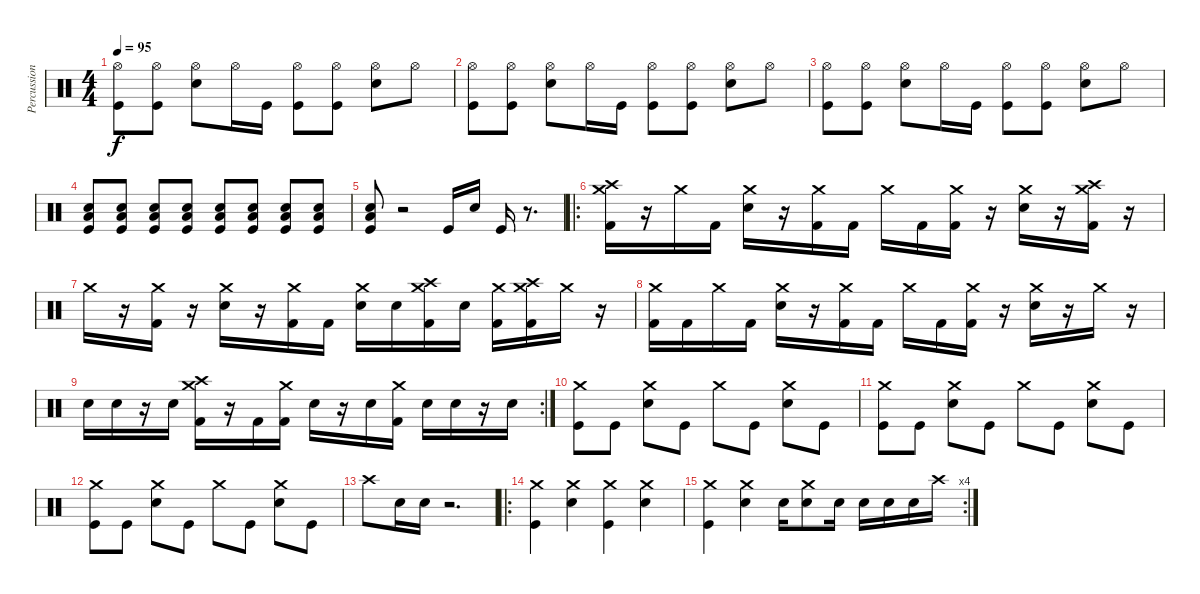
\track ("Percussion" "Percussion") {instrument percussion}
\staff {score}
\articulation defaults
\ts (4 4)
\tempo 95
\clef neutral
\ks c
("Hi-Hat (open)" "Kick (hit)").8{dy f} ("Hi-Hat (open)" "Kick (hit)").8 ("Hi-Hat (open)" "Snare (hit) 2").8 "Hi-Hat (open)".16 "Kick (hit)".16 ("Hi-Hat (open)" "Kick (hit)").8 ("Hi-Hat (open)" "Kick (hit)").8 ("Hi-Hat (open)" "Snare (hit) 2").8 "Hi-Hat (open)".8 |
("Hi-Hat (open)" "Kick (hit)").8 ("Hi-Hat (open)" "Kick (hit)").8 ("Hi-Hat (open)" "Snare (hit) 2").8 "Hi-Hat (open)".16 "Kick (hit)".16 ("Hi-Hat (open)" "Kick (hit)").8 ("Hi-Hat (open)" "Kick (hit)").8 ("Hi-Hat (open)" "Snare (hit) 2").8 "Hi-Hat (open)".8 |
("Hi-Hat (open)" "Kick (hit)").8 ("Hi-Hat (open)" "Kick (hit)").8 ("Hi-Hat (open)" "Snare (hit) 2").8 "Hi-Hat (open)".16 "Kick (hit)".16 ("Hi-Hat (open)" "Kick (hit)").8 ("Hi-Hat (open)" "Kick (hit)").8 ("Hi-Hat (open)" "Snare (hit) 2").8 "Hi-Hat (open)".8 |
("Snare (hit) 2" "Low Tom (hit)" "Kick (hit)").8 ("Snare (hit) 2" "Low Tom (hit)" "Kick (hit)").8 ("Snare (hit) 2" "Low Tom (hit)" "Kick (hit)").8 ("Snare (hit) 2" "Low Tom (hit)" "Kick (hit)").8 ("Snare (hit) 2" "Low Tom (hit)" "Kick (hit)").8 ("Snare (hit) 2" "Low Tom (hit)" "Kick (hit)").8 ("Snare (hit) 2" "Low Tom (hit)" "Kick (hit)").8 ("Snare (hit) 2" "Low Tom (hit)" "Kick (hit)").8 |
("Snare (hit) 2" "Low Tom (hit)" "Kick (hit)").8 r.2 "Kick (hit)".16 "Snare (hit) 2".16 "Kick (hit)".16 r.8{d} |
\ro
("Crash medium (hit)" "Crash high (hit)" "Kick (hit) 2").16 r.16 "Crash medium (hit)".16 "Kick (hit) 2".16 ("Crash medium (hit)" "Electric Snare (hit)").16 r.16 ("Crash medium (hit)" "Kick (hit) 2").16 "Kick (hit) 2".16 "Crash medium (hit)".16 "Kick (hit) 2".16 ("Crash medium (hit)" "Kick (hit) 2").16 r.16 ("Crash medium (hit)" "Electric Snare (hit)").16 r.16 ("Crash medium (hit)" "Crash high (hit)" "Kick (hit) 2").16 r.16 |
"Crash medium (hit)".16 r.16 ("Crash medium (hit)" "Kick (hit) 2").16 r.16 ("Crash medium (hit)" "Electric Snare (hit)").16 r.16 ("Crash medium (hit)" "Kick (hit) 2").16 "Kick (hit) 2".16 ("Crash medium (hit)" "Electric Snare (hit)").16 "Electric Snare (hit)".16 ("Crash medium (hit)" "Crash high (hit)" "Kick (hit) 2").16 "Electric Snare (hit)".16 ("Crash medium (hit)" "Kick (hit) 2").16 ("Crash medium (hit)" "Crash high (hit)" "Kick (hit) 2").16 "Crash medium (hit)".16 r.16 |
("Crash medium (hit)" "Kick (hit) 2").16 "Kick (hit) 2".16 "Crash medium (hit)".16 "Kick (hit) 2".16 ("Crash medium (hit)" "Electric Snare (hit)").16 r.16 ("Crash medium (hit)" "Kick (hit) 2").16 "Kick (hit) 2".16 "Crash medium (hit)".16 "Kick (hit) 2".16 ("Crash medium (hit)" "Kick (hit) 2").16 r.16 ("Crash medium (hit)" "Electric Snare (hit)").16 r.16 "Crash medium (hit)".16 r.16 |
\rc 2 "Electric Snare (hit)".16 "Electric Snare (hit)".16
r.16 "Electric Snare (hit)".16 ("Crash medium (hit)" "Crash high (hit)" "Kick (hit) 2").16 r.16 "Kick (hit) 2".16 ("Crash medium (hit)" "Kick (hit) 2").16 "Electric Snare (hit)".16 r.16 "Electric Snare (hit)".16 ("Crash medium (hit)" "Kick (hit) 2").16 "Electric Snare (hit)".16 "Electric Snare (hit)".16 r.16 "Electric Snare (hit)".16 |
("Crash medium (hit)" "Kick (hit)").8 "Kick (hit)".8 ("Crash medium (hit)" "Snare (hit) 2").8 "Kick (hit)".8 "Crash medium (hit)".8 "Kick (hit)".8 ("Crash medium (hit)" "Snare (hit) 2").8 "Kick (hit)".8 |
("Crash medium (hit)" "Kick (hit)").8 "Kick (hit)".8 ("Crash medium (hit)" "Snare (hit) 2").8 "Kick (hit)".8 "Crash medium (hit)".8 "Kick (hit)".8 ("Crash medium (hit)" "Snare (hit) 2").8 "Kick (hit)".8 |
("Crash medium (hit)" "Kick (hit)").8 "Kick (hit)".8 ("Crash medium (hit)" "Snare (hit) 2").8 "Kick (hit)".8 "Crash medium (hit)".8 "Kick (hit)".8 ("Crash medium (hit)" "Snare (hit) 2").8 "Kick (hit)".8 |
"Crash high (hit)".8 "Snare (hit) 2".16 "Snare (hit) 2".16 r.2{d} |
\ro
("Crash medium (hit)" "Kick (hit)").4 ("Crash medium (hit)" "Snare (hit) 2").4 ("Crash medium (hit)" "Kick (hit)").4 ("Crash medium (hit)" "Snare (hit) 2").4 |
\rc 4
("Crash medium (hit)" "Kick (hit)").4 ("Crash medium (hit)" "Snare (hit) 2").4 "Snare (hit) 2".16 ("Crash medium (hit)" "Snare (hit) 2").8 "Snare (hit) 2".16 "Snare (hit) 2".16 "Snare (hit) 2".16 "Snare (hit) 2".16 "Crash high (hit)".16
